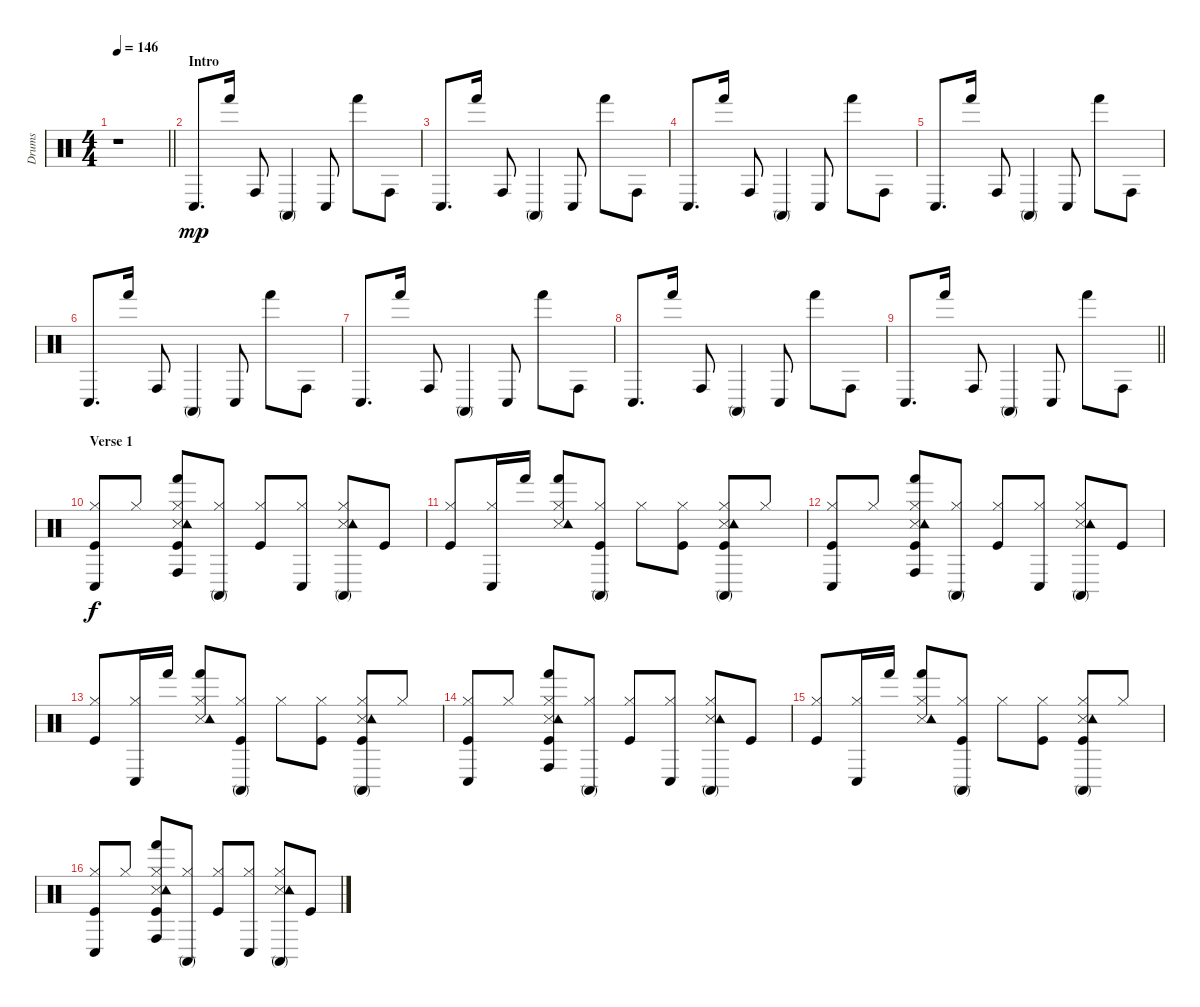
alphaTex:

\track ("Drums" "Drums") {instrument percussion}
\staff {score}
\articulation defaults
\ts (4 4)
\tempo 146
\clef neutral
\barLineRight lightlight
\ks c
r.1{dy mp} |
\section ("" "Intro")
"Conga low (hit)".8{d} "Hand (hit)".16 "Conga high (hit)".8 "Conga high (mute)".4 "Conga low (hit)".8 "Hand (hit)".8 "Conga high (hit)".8 |
"Conga low (hit)".8{d} "Hand (hit)".16 "Conga high (hit)".8 "Conga high (mute)".4 "Conga low (hit)".8 "Hand (hit)".8 "Conga high (hit)".8 |
"Conga low (hit)".8{d} "Hand (hit)".16 "Conga high (hit)".8 "Conga high (mute)".4 "Conga low (hit)".8 "Hand (hit)".8 "Conga high (hit)".8 |
"Conga low (hit)".8{d} "Hand (hit)".16 "Conga high (hit)".8 "Conga high (mute)".4 "Conga low (hit)".8 "Hand (hit)".8 "Conga high (hit)".8 |
"Conga low (hit)".8{d} "Hand (hit)".16 "Conga high (hit)".8 "Conga high (mute)".4 "Conga low (hit)".8 "Hand (hit)".8 "Conga high (hit)".8 |
"Conga low (hit)".8{d} "Hand (hit)".16 "Conga high (hit)".8 "Conga high (mute)".4 "Conga low (hit)".8 "Hand (hit)".8 "Conga high (hit)".8 |
"Conga low (hit)".8{d} "Hand (hit)".16 "Conga high (hit)".8 "Conga high (mute)".4 "Conga low (hit)".8 "Hand (hit)".8 "Conga high (hit)".8 |
\barLineRight lightlight "Conga low (hit)".8{d} "Hand (hit)".16 "Conga high (hit)".8 "Conga high (mute)".4 "Conga low (hit)".8 "Hand (hit)".8 "Conga high (hit)".8
|
\section ("" "Verse 1")
("Kick (hit)" "Hi-Hat (closed)" "Conga low (hit)").8{dy f} "Hi-Hat (closed)".8 ("Kick (hit)" "Snare (side stick) 3" "Hi-Hat (closed)" "Tambourine (hit)" "Hand (hit)" "Conga high (hit)").8 ("Hi-Hat (closed)" "Conga high (mute)").8 ("Kick (hit)" "Hi-Hat (closed)").8 ("Hi-Hat (closed)" "Conga low (hit)").8 ("Snare (side stick) 3" "Hi-Hat (closed)" "Tambourine (hit)" "Conga high (mute)").8 "Kick (hit)".8 |
("Kick (hit)" "Hi-Hat (closed)").8 ("Hi-Hat (closed)" "Conga low (hit)").16 "Hand (hit)".16 ("Snare (side stick) 3" "Hi-Hat (closed)" "Tambourine (hit)" "Hand (hit)").8 ("Kick (hit)" "Hi-Hat (closed)" "Conga high (mute)").8 "Hi-Hat (closed)".8 ("Kick (hit)" "Hi-Hat (closed)").8 ("Kick (hit)" "Snare (side stick) 3" "Hi-Hat (closed)" "Tambourine (hit)" "Conga high (mute)").8 "Hi-Hat (closed)".8 |
("Kick (hit)" "Hi-Hat (closed)" "Conga low (hit)").8 "Hi-Hat (closed)".8 ("Kick (hit)" "Snare (side stick) 3" "Hi-Hat (closed)" "Tambourine (hit)" "Hand (hit)" "Conga high (hit)").8 ("Hi-Hat (closed)" "Conga high (mute)").8 ("Kick (hit)" "Hi-Hat (closed)").8 ("Hi-Hat (closed)" "Conga low (hit)").8 ("Snare (side stick) 3" "Hi-Hat (closed)" "Tambourine (hit)" "Conga high (mute)").8 "Kick (hit)".8 |
("Kick (hit)" "Hi-Hat (closed)").8 ("Hi-Hat (closed)" "Conga low (hit)").16 "Hand (hit)".16 ("Snare (side stick) 3" "Hi-Hat (closed)" "Tambourine (hit)" "Hand (hit)").8 ("Kick (hit)" "Hi-Hat (closed)" "Conga high (mute)").8 "Hi-Hat (closed)".8 ("Kick (hit)" "Hi-Hat (closed)").8 ("Kick (hit)" "Snare (side stick) 3" "Hi-Hat (closed)" "Tambourine (hit)" "Conga high (mute)").8 "Hi-Hat (closed)".8 |
("Kick (hit)" "Hi-Hat (closed)" "Conga low (hit)").8 "Hi-Hat (closed)".8 ("Kick (hit)" "Snare (side stick) 3" "Hi-Hat (closed)" "Tambourine (hit)" "Hand (hit)" "Conga high (hit)").8 ("Hi-Hat (closed)" "Conga high (mute)").8 ("Kick (hit)" "Hi-Hat (closed)").8 ("Hi-Hat (closed)" "Conga low (hit)").8 ("Snare (side stick) 3" "Hi-Hat (closed)" "Tambourine (hit)" "Conga high (mute)").8 "Kick (hit)".8 |
("Kick (hit)" "Hi-Hat (closed)").8 ("Hi-Hat (closed)" "Conga low (hit)").16 "Hand (hit)".16 ("Snare (side stick) 3" "Hi-Hat (closed)" "Tambourine (hit)" "Hand (hit)").8 ("Kick (hit)" "Hi-Hat (closed)" "Conga high (mute)").8 "Hi-Hat (closed)".8 ("Kick (hit)" "Hi-Hat (closed)").8 ("Kick (hit)" "Snare (side stick) 3" "Hi-Hat (closed)" "Tambourine (hit)" "Conga high (mute)").8 "Hi-Hat (closed)".8 |
("Kick (hit)" "Hi-Hat (closed)" "Conga low (hit)").8 "Hi-Hat (closed)".8 ("Kick (hit)" "Snare (side stick) 3" "Hi-Hat (closed)" "Tambourine (hit)" "Hand (hit)" "Conga high (hit)").8 ("Hi-Hat (closed)" "Conga high (mute)").8 ("Kick (hit)" "Hi-Hat (closed)").8 ("Hi-Hat (closed)" "Conga low (hit)").8 ("Snare (side stick) 3" "Hi-Hat (closed)" "Tambourine (hit)" "Conga high (mute)").8 "Kick (hit)".8
